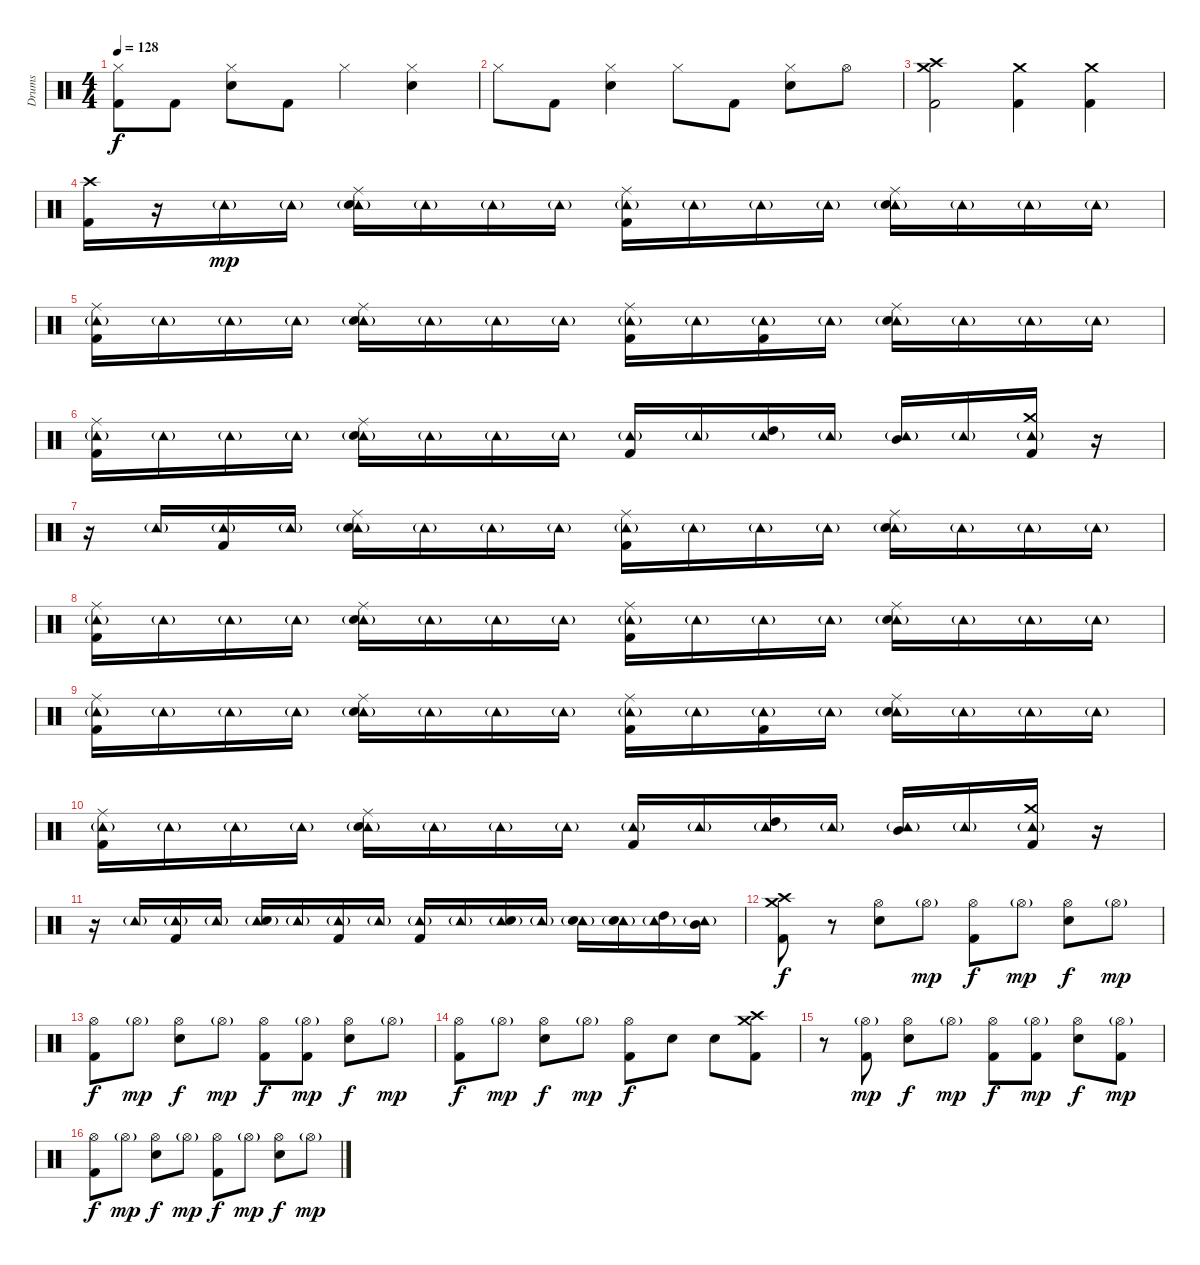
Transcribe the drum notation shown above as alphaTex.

\track ("Drums" "Drums") {instrument percussion}
\staff {score}
\articulation defaults
\ts (4 4)
\tempo 128
\clef neutral
\ks c
("Hi-Hat (closed)" "Kick (hit) 2").8{dy f} "Kick (hit) 2".8 ("Hi-Hat (closed)" "Electric Snare (hit)").8 "Kick (hit) 2".8 "Hi-Hat (closed)".4 ("Hi-Hat (closed)" "Electric Snare (hit)").4 |
"Hi-Hat (closed)".8 "Kick (hit) 2".8 ("Hi-Hat (closed)" "Electric Snare (hit)").4 "Hi-Hat (closed)".8 "Kick (hit) 2".8 ("Hi-Hat (closed)" "Electric Snare (hit)").8 "Hi-Hat (open)".8 |
("Crash medium (hit)" "Crash high (hit)" "Kick (hit) 2").2 ("Crash medium (hit)" "Kick (hit) 2").4 ("Crash medium (hit)" "Kick (hit) 2").4 |
("Crash high (hit)" "Kick (hit) 2").16 r.16 "Tambourine (hit)"{g}.16{dy mp} "Tambourine (hit)"{g}.16 ("Ride (middle)" "Tambourine (hit)"{g} "Electric Snare (hit)").16 "Tambourine (hit)"{g}.16 "Tambourine (hit)"{g}.16 "Tambourine (hit)"{g}.16 ("Ride (middle)" "Tambourine (hit)"{g} "Kick (hit) 2").16 "Tambourine (hit)"{g}.16 "Tambourine (hit)"{g}.16 "Tambourine (hit)"{g}.16 ("Ride (middle)" "Tambourine (hit)"{g} "Electric Snare (hit)").16 "Tambourine (hit)"{g}.16 "Tambourine (hit)"{g}.16 "Tambourine (hit)"{g}.16 |
("Ride (middle)" "Tambourine (hit)"{g} "Kick (hit) 2").16 "Tambourine (hit)"{g}.16 "Tambourine (hit)"{g}.16 "Tambourine (hit)"{g}.16 ("Ride (middle)" "Tambourine (hit)"{g} "Electric Snare (hit)").16 "Tambourine (hit)"{g}.16 "Tambourine (hit)"{g}.16 "Tambourine (hit)"{g}.16 ("Ride (middle)" "Tambourine (hit)"{g} "Kick (hit) 2").16 "Tambourine (hit)"{g}.16 ("Tambourine (hit)"{g} "Kick (hit) 2").16 "Tambourine (hit)"{g}.16 ("Ride (middle)" "Tambourine (hit)"{g} "Electric Snare (hit)").16 "Tambourine (hit)"{g}.16 "Tambourine (hit)"{g}.16 "Tambourine (hit)"{g}.16 |
("Ride (middle)" "Tambourine (hit)"{g} "Kick (hit) 2").16 "Tambourine (hit)"{g}.16 "Tambourine (hit)"{g}.16 "Tambourine (hit)"{g}.16 ("Ride (middle)" "Tambourine (hit)"{g} "Electric Snare (hit)").16 "Tambourine (hit)"{g}.16 "Tambourine (hit)"{g}.16 "Tambourine (hit)"{g}.16 ("Tambourine (hit)"{g} "Kick (hit) 2").16 "Tambourine (hit)"{g}.16 ("Tambourine (hit)"{g} "High Tom (hit)").16 "Tambourine (hit)"{g}.16 ("Tambourine (hit)"{g} "Mid Tom (hit)").16 "Tambourine (hit)"{g}.16 ("Crash medium (hit)" "Tambourine (hit)"{g} "Kick (hit) 2").16 r.16 |
r.16 "Tambourine (hit)"{g}.16 ("Tambourine (hit)"{g} "Kick (hit) 2").16 "Tambourine (hit)"{g}.16 ("Ride (middle)" "Tambourine (hit)"{g} "Electric Snare (hit)").16 "Tambourine (hit)"{g}.16 "Tambourine (hit)"{g}.16 "Tambourine (hit)"{g}.16 ("Ride (middle)" "Tambourine (hit)"{g} "Kick (hit) 2").16 "Tambourine (hit)"{g}.16 "Tambourine (hit)"{g}.16 "Tambourine (hit)"{g}.16 ("Ride (middle)" "Tambourine (hit)"{g} "Electric Snare (hit)").16 "Tambourine (hit)"{g}.16 "Tambourine (hit)"{g}.16 "Tambourine (hit)"{g}.16 |
("Ride (middle)" "Tambourine (hit)"{g} "Kick (hit) 2").16 "Tambourine (hit)"{g}.16 "Tambourine (hit)"{g}.16 "Tambourine (hit)"{g}.16 ("Ride (middle)" "Tambourine (hit)"{g} "Electric Snare (hit)").16 "Tambourine (hit)"{g}.16 "Tambourine (hit)"{g}.16 "Tambourine (hit)"{g}.16 ("Ride (middle)" "Tambourine (hit)"{g} "Kick (hit) 2").16 "Tambourine (hit)"{g}.16 "Tambourine (hit)"{g}.16 "Tambourine (hit)"{g}.16 ("Ride (middle)" "Tambourine (hit)"{g} "Electric Snare (hit)").16 "Tambourine (hit)"{g}.16 "Tambourine (hit)"{g}.16 "Tambourine (hit)"{g}.16 |
("Ride (middle)" "Tambourine (hit)"{g} "Kick (hit) 2").16 "Tambourine (hit)"{g}.16 "Tambourine (hit)"{g}.16 "Tambourine (hit)"{g}.16 ("Ride (middle)" "Tambourine (hit)"{g} "Electric Snare (hit)").16 "Tambourine (hit)"{g}.16 "Tambourine (hit)"{g}.16 "Tambourine (hit)"{g}.16 ("Ride (middle)" "Tambourine (hit)"{g} "Kick (hit) 2").16 "Tambourine (hit)"{g}.16 ("Tambourine (hit)"{g} "Kick (hit) 2").16 "Tambourine (hit)"{g}.16 ("Ride (middle)" "Tambourine (hit)"{g} "Electric Snare (hit)").16 "Tambourine (hit)"{g}.16 "Tambourine (hit)"{g}.16 "Tambourine (hit)"{g}.16 |
("Ride (middle)" "Tambourine (hit)"{g} "Kick (hit) 2").16 "Tambourine (hit)"{g}.16 "Tambourine (hit)"{g}.16 "Tambourine (hit)"{g}.16 ("Ride (middle)" "Tambourine (hit)"{g} "Electric Snare (hit)").16 "Tambourine (hit)"{g}.16 "Tambourine (hit)"{g}.16 "Tambourine (hit)"{g}.16 ("Tambourine (hit)"{g} "Kick (hit) 2").16 "Tambourine (hit)"{g}.16 ("Tambourine (hit)"{g} "High Tom (hit)").16 "Tambourine (hit)"{g}.16 ("Tambourine (hit)"{g} "Mid Tom (hit)").16 "Tambourine (hit)"{g}.16 ("Crash medium (hit)" "Tambourine (hit)"{g} "Kick (hit) 2").16 r.16 |
r.16 "Tambourine (hit)"{g}.16 ("Tambourine (hit)"{g} "Kick (hit) 2").16 "Tambourine (hit)"{g}.16 ("Tambourine (hit)"{g} "Electric Snare (hit)").16 "Tambourine (hit)"{g}.16 ("Tambourine (hit)"{g} "Kick (hit) 2").16 "Tambourine (hit)"{g}.16 ("Tambourine (hit)"{g} "Kick (hit) 2").16 "Tambourine (hit)"{g}.16 ("Tambourine (hit)"{g} "Electric Snare (hit)").16 "Tambourine (hit)"{g}.16 ("Tambourine (hit)"{g} "Electric Snare (hit)").16 ("Tambourine (hit)"{g} "Electric Snare (hit)").16 ("Tambourine (hit)"{g} "High Tom (hit)").16 ("Tambourine (hit)"{g} "Mid Tom (hit)").16 |
("Crash high (hit)" "Crash medium (hit)" "Kick (hit) 2").8{dy f} r.8 ("Hi-Hat (open)" "Electric Snare (hit)").8 "Hi-Hat (open)"{g}.8{dy mp} ("Hi-Hat (open)" "Kick (hit) 2").8{dy f} "Hi-Hat (open)"{g}.8{dy mp} ("Hi-Hat (open)" "Electric Snare (hit)").8{dy f} "Hi-Hat (open)"{g}.8{dy mp} |
("Hi-Hat (open)" "Kick (hit) 2").8{dy f} "Hi-Hat (open)"{g}.8{dy mp} ("Hi-Hat (open)" "Electric Snare (hit)").8{dy f} "Hi-Hat (open)"{g}.8{dy mp} ("Hi-Hat (open)" "Kick (hit) 2").8{dy f} ("Hi-Hat (open)"{g} "Kick (hit) 2").8{dy mp} ("Hi-Hat (open)" "Electric Snare (hit)").8{dy f} "Hi-Hat (open)"{g}.8{dy mp} |
("Hi-Hat (open)" "Kick (hit) 2").8{dy f} "Hi-Hat (open)"{g}.8{dy mp} ("Hi-Hat (open)" "Electric Snare (hit)").8{dy f} "Hi-Hat (open)"{g}.8{dy mp} ("Hi-Hat (open)" "Kick (hit) 2").8{dy f} "Electric Snare (hit)".8 "Electric Snare (hit)".8 ("Crash medium (hit)" "Crash high (hit)" "Kick (hit) 2").8 |
r.8 ("Hi-Hat (open)"{g} "Kick (hit) 2").8{dy mp} ("Hi-Hat (open)" "Electric Snare (hit)").8{dy f} "Hi-Hat (open)"{g}.8{dy mp} ("Hi-Hat (open)" "Kick (hit) 2").8{dy f} ("Hi-Hat (open)"{g} "Kick (hit) 2").8{dy mp} ("Hi-Hat (open)" "Electric Snare (hit)").8{dy f} ("Hi-Hat (open)"{g} "Kick (hit) 2").8{dy mp} |
("Hi-Hat (open)" "Kick (hit) 2").8{dy f} "Hi-Hat (open)"{g}.8{dy mp} ("Hi-Hat (open)" "Electric Snare (hit)").8{dy f} "Hi-Hat (open)"{g}.8{dy mp} ("Hi-Hat (open)" "Kick (hit) 2").8{dy f} "Hi-Hat (open)"{g}.8{dy mp} ("Hi-Hat (open)" "Electric Snare (hit)").8{dy f} "Hi-Hat (open)"{g}.8{dy mp}
